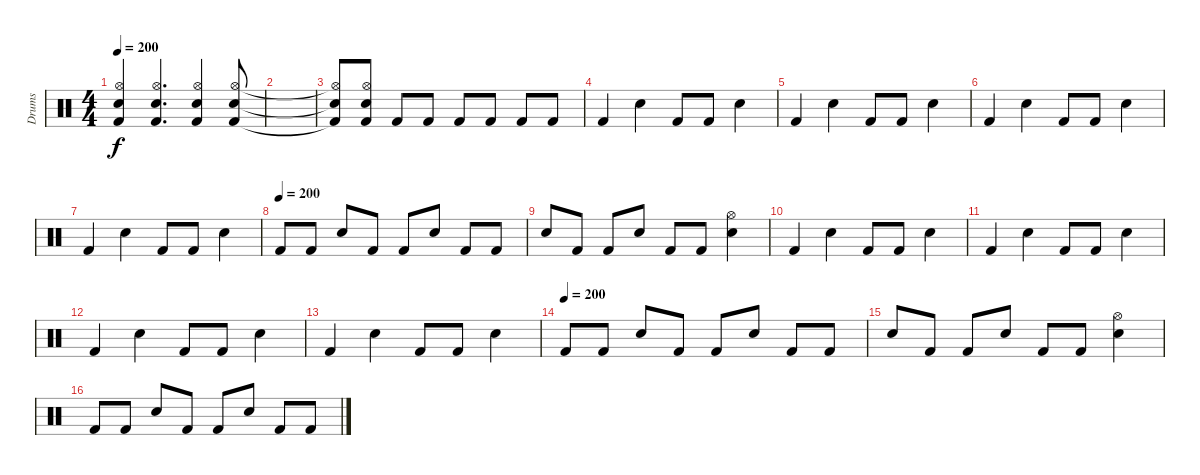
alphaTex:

\track ("Drums" "Drums") {instrument percussion}
\staff {score}
\articulation defaults
\ts (4 4)
\tempo 200
\clef neutral
\ks c
("Kick (hit) 2"{t} "Hi-Hat (open)"{t} "Snare (hit) 2"{t}).4{dy f} ("Kick (hit) 2" "Hi-Hat (open)" "Snare (hit) 2").4{d} ("Kick (hit) 2" "Hi-Hat (open)" "Snare (hit) 2").4 ("Kick (hit) 2" "Hi-Hat (open)" "Snare (hit) 2").8 |
|
("Kick (hit) 2"{t} "Hi-Hat (open)"{t} "Snare (hit) 2"{t}).8 ("Kick (hit) 2" "Hi-Hat (open)" "Snare (hit) 2").8 "Kick (hit) 2".8 "Kick (hit) 2".8 "Kick (hit) 2".8 "Kick (hit) 2".8 "Kick (hit) 2".8 "Kick (hit) 2".8 |
"Kick (hit) 2".4 "Snare (hit) 2".4 "Kick (hit) 2".8 "Kick (hit) 2".8 "Snare (hit) 2".4 |
"Kick (hit) 2".4 "Snare (hit) 2".4 "Kick (hit) 2".8 "Kick (hit) 2".8 "Snare (hit) 2".4 |
"Kick (hit) 2".4 "Snare (hit) 2".4 "Kick (hit) 2".8 "Kick (hit) 2".8 "Snare (hit) 2".4 |
"Kick (hit) 2".4 "Snare (hit) 2".4 "Kick (hit) 2".8 "Kick (hit) 2".8 "Snare (hit) 2".4 |
\tempo (200)
"Kick (hit) 2".8 "Kick (hit) 2".8 "Snare (hit) 2".8 "Kick (hit) 2".8 "Kick (hit) 2".8 "Snare (hit) 2".8 "Kick (hit) 2".8 "Kick (hit) 2".8 |
"Snare (hit) 2".8 "Kick (hit) 2".8 "Kick (hit) 2".8 "Snare (hit) 2".8 "Kick (hit) 2".8 "Kick (hit) 2".8 ("Hi-Hat (open)" "Snare (hit) 2").4 |
"Kick (hit) 2".4 "Snare (hit) 2".4 "Kick (hit) 2".8 "Kick (hit) 2".8 "Snare (hit) 2".4 |
"Kick (hit) 2".4 "Snare (hit) 2".4 "Kick (hit) 2".8 "Kick (hit) 2".8 "Snare (hit) 2".4 |
"Kick (hit) 2".4 "Snare (hit) 2".4 "Kick (hit) 2".8 "Kick (hit) 2".8 "Snare (hit) 2".4 |
"Kick (hit) 2".4 "Snare (hit) 2".4 "Kick (hit) 2".8 "Kick (hit) 2".8 "Snare (hit) 2".4 |
\tempo (200)
"Kick (hit) 2".8 "Kick (hit) 2".8 "Snare (hit) 2".8 "Kick (hit) 2".8 "Kick (hit) 2".8 "Snare (hit) 2".8 "Kick (hit) 2".8 "Kick (hit) 2".8 |
"Snare (hit) 2".8 "Kick (hit) 2".8 "Kick (hit) 2".8 "Snare (hit) 2".8 "Kick (hit) 2".8 "Kick (hit) 2".8 ("Hi-Hat (open)" "Snare (hit) 2").4 |
"Kick (hit) 2".8 "Kick (hit) 2".8 "Snare (hit) 2".8 "Kick (hit) 2".8 "Kick (hit) 2".8 "Snare (hit) 2".8 "Kick (hit) 2".8 "Kick (hit) 2".8
